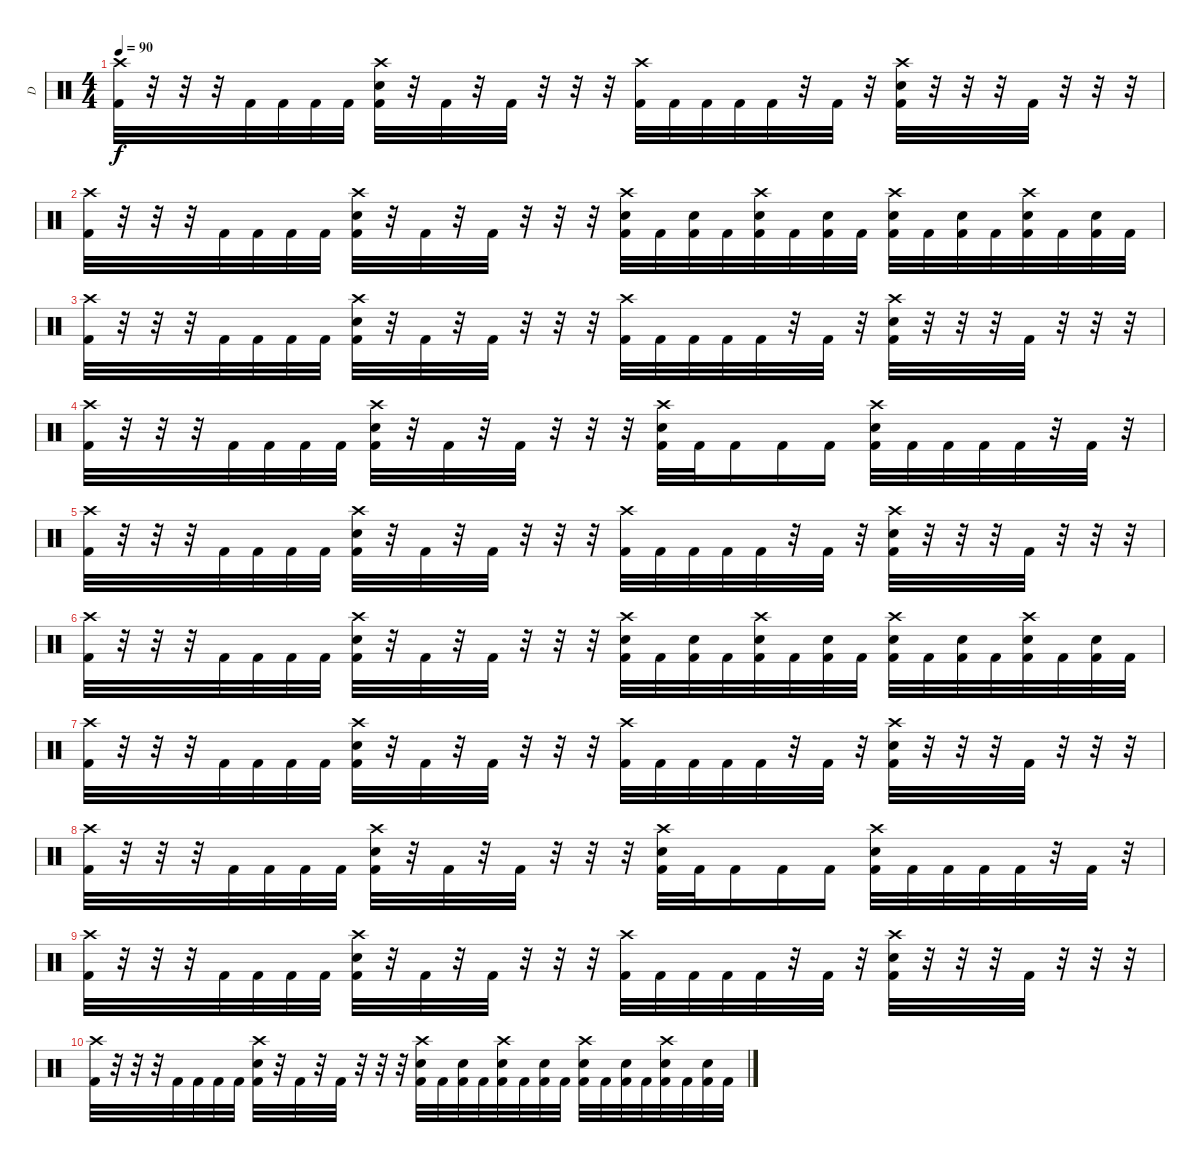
\track ("D" "D") {instrument percussion}
\staff {score}
\articulation defaults
\ts (4 4)
\tempo 90
\clef neutral
\ks c
("Crash high (hit)" "Kick (hit) 2").32{dy f} r.32 r.32 r.32 "Kick (hit) 2".32 "Kick (hit) 2".32 "Kick (hit) 2".32 "Kick (hit) 2".32 ("Crash high (hit)" "Electric Snare (hit)" "Kick (hit) 2").32 r.32 "Kick (hit) 2".32 r.32 "Kick (hit) 2".32 r.32 r.32 r.32 ("Crash high (hit)" "Kick (hit) 2").32 "Kick (hit) 2".32 "Kick (hit) 2".32 "Kick (hit) 2".32 "Kick (hit) 2".32 r.32 "Kick (hit) 2".32 r.32 ("Crash high (hit)" "Electric Snare (hit)" "Kick (hit) 2").32 r.32 r.32 r.32 "Kick (hit) 2".32 r.32 r.32 r.32 |
("Crash high (hit)" "Kick (hit) 2").32 r.32 r.32 r.32 "Kick (hit) 2".32 "Kick (hit) 2".32 "Kick (hit) 2".32 "Kick (hit) 2".32 ("Crash high (hit)" "Electric Snare (hit)" "Kick (hit) 2").32 r.32 "Kick (hit) 2".32 r.32 "Kick (hit) 2".32 r.32 r.32 r.32 ("Crash high (hit)" "Electric Snare (hit)" "Kick (hit) 2").32 "Kick (hit) 2".32 ("Electric Snare (hit)" "Kick (hit) 2").32 "Kick (hit) 2".32 ("Crash high (hit)" "Electric Snare (hit)" "Kick (hit) 2").32 "Kick (hit) 2".32 ("Electric Snare (hit)" "Kick (hit) 2").32 "Kick (hit) 2".32 ("Crash high (hit)" "Electric Snare (hit)" "Kick (hit) 2").32 "Kick (hit) 2".32 ("Electric Snare (hit)" "Kick (hit) 2").32 "Kick (hit) 2".32 ("Crash high (hit)" "Electric Snare (hit)" "Kick (hit) 2").32 "Kick (hit) 2".32 ("Electric Snare (hit)" "Kick (hit) 2").32 "Kick (hit) 2".32 |
("Crash high (hit)" "Kick (hit) 2").32 r.32 r.32 r.32 "Kick (hit) 2".32 "Kick (hit) 2".32 "Kick (hit) 2".32 "Kick (hit) 2".32 ("Crash high (hit)" "Electric Snare (hit)" "Kick (hit) 2").32 r.32 "Kick (hit) 2".32 r.32 "Kick (hit) 2".32 r.32 r.32 r.32 ("Crash high (hit)" "Kick (hit) 2").32 "Kick (hit) 2".32 "Kick (hit) 2".32 "Kick (hit) 2".32 "Kick (hit) 2".32 r.32 "Kick (hit) 2".32 r.32 ("Crash high (hit)" "Electric Snare (hit)" "Kick (hit) 2").32 r.32 r.32 r.32 "Kick (hit) 2".32 r.32 r.32 r.32 |
("Crash high (hit)" "Kick (hit) 2").32 r.32 r.32 r.32 "Kick (hit) 2".32 "Kick (hit) 2".32 "Kick (hit) 2".32 "Kick (hit) 2".32 ("Crash high (hit)" "Electric Snare (hit)" "Kick (hit) 2").32 r.32 "Kick (hit) 2".32 r.32 "Kick (hit) 2".32 r.32 r.32 r.32 ("Crash high (hit)" "Electric Snare (hit)" "Kick (hit) 2").32 "Kick (hit) 2".32 "Kick (hit) 2".16 "Kick (hit) 2".16 "Kick (hit) 2".16 ("Crash high (hit)" "Electric Snare (hit)" "Kick (hit) 2").32 "Kick (hit) 2".32 "Kick (hit) 2".32 "Kick (hit) 2".32 "Kick (hit) 2".32 r.32 "Kick (hit) 2".32 r.32 |
("Crash high (hit)" "Kick (hit) 2").32 r.32 r.32 r.32 "Kick (hit) 2".32 "Kick (hit) 2".32 "Kick (hit) 2".32 "Kick (hit) 2".32 ("Crash high (hit)" "Electric Snare (hit)" "Kick (hit) 2").32 r.32 "Kick (hit) 2".32 r.32 "Kick (hit) 2".32 r.32 r.32 r.32 ("Crash high (hit)" "Kick (hit) 2").32 "Kick (hit) 2".32 "Kick (hit) 2".32 "Kick (hit) 2".32 "Kick (hit) 2".32 r.32 "Kick (hit) 2".32 r.32 ("Crash high (hit)" "Electric Snare (hit)" "Kick (hit) 2").32 r.32 r.32 r.32 "Kick (hit) 2".32 r.32 r.32 r.32 |
("Crash high (hit)" "Kick (hit) 2").32 r.32 r.32 r.32 "Kick (hit) 2".32 "Kick (hit) 2".32 "Kick (hit) 2".32 "Kick (hit) 2".32 ("Crash high (hit)" "Electric Snare (hit)" "Kick (hit) 2").32 r.32 "Kick (hit) 2".32 r.32 "Kick (hit) 2".32 r.32 r.32 r.32 ("Crash high (hit)" "Electric Snare (hit)" "Kick (hit) 2").32 "Kick (hit) 2".32 ("Electric Snare (hit)" "Kick (hit) 2").32 "Kick (hit) 2".32 ("Crash high (hit)" "Electric Snare (hit)" "Kick (hit) 2").32 "Kick (hit) 2".32 ("Electric Snare (hit)" "Kick (hit) 2").32 "Kick (hit) 2".32 ("Crash high (hit)" "Electric Snare (hit)" "Kick (hit) 2").32 "Kick (hit) 2".32 ("Electric Snare (hit)" "Kick (hit) 2").32 "Kick (hit) 2".32 ("Crash high (hit)" "Electric Snare (hit)" "Kick (hit) 2").32 "Kick (hit) 2".32 ("Electric Snare (hit)" "Kick (hit) 2").32 "Kick (hit) 2".32 |
("Crash high (hit)" "Kick (hit) 2").32{volume 0} r.32 r.32 r.32 "Kick (hit) 2".32 "Kick (hit) 2".32 "Kick (hit) 2".32 "Kick (hit) 2".32 ("Crash high (hit)" "Electric Snare (hit)" "Kick (hit) 2").32 r.32 "Kick (hit) 2".32 r.32 "Kick (hit) 2".32 r.32 r.32 r.32 ("Crash high (hit)" "Kick (hit) 2").32 "Kick (hit) 2".32 "Kick (hit) 2".32 "Kick (hit) 2".32 "Kick (hit) 2".32 r.32 "Kick (hit) 2".32 r.32 ("Crash high (hit)" "Electric Snare (hit)" "Kick (hit) 2").32 r.32 r.32 r.32 "Kick (hit) 2".32 r.32 r.32 r.32 |
("Crash high (hit)" "Kick (hit) 2").32 r.32 r.32 r.32 "Kick (hit) 2".32 "Kick (hit) 2".32 "Kick (hit) 2".32 "Kick (hit) 2".32 ("Crash high (hit)" "Electric Snare (hit)" "Kick (hit) 2").32 r.32 "Kick (hit) 2".32 r.32 "Kick (hit) 2".32 r.32 r.32 r.32 ("Crash high (hit)" "Electric Snare (hit)" "Kick (hit) 2").32 "Kick (hit) 2".32 "Kick (hit) 2".16 "Kick (hit) 2".16 "Kick (hit) 2".16 ("Crash high (hit)" "Electric Snare (hit)" "Kick (hit) 2").32 "Kick (hit) 2".32 "Kick (hit) 2".32 "Kick (hit) 2".32 "Kick (hit) 2".32 r.32 "Kick (hit) 2".32 r.32 |
("Crash high (hit)" "Kick (hit) 2").32 r.32 r.32 r.32 "Kick (hit) 2".32 "Kick (hit) 2".32 "Kick (hit) 2".32 "Kick (hit) 2".32 ("Crash high (hit)" "Electric Snare (hit)" "Kick (hit) 2").32 r.32 "Kick (hit) 2".32 r.32 "Kick (hit) 2".32 r.32 r.32 r.32 ("Crash high (hit)" "Kick (hit) 2").32 "Kick (hit) 2".32 "Kick (hit) 2".32 "Kick (hit) 2".32 "Kick (hit) 2".32 r.32 "Kick (hit) 2".32 r.32 ("Crash high (hit)" "Electric Snare (hit)" "Kick (hit) 2").32 r.32 r.32 r.32 "Kick (hit) 2".32 r.32 r.32 r.32 |
("Crash high (hit)" "Kick (hit) 2").32 r.32 r.32 r.32 "Kick (hit) 2".32 "Kick (hit) 2".32 "Kick (hit) 2".32 "Kick (hit) 2".32 ("Crash high (hit)" "Electric Snare (hit)" "Kick (hit) 2").32 r.32 "Kick (hit) 2".32 r.32 "Kick (hit) 2".32 r.32 r.32 r.32 ("Crash high (hit)" "Electric Snare (hit)" "Kick (hit) 2").32 "Kick (hit) 2".32 ("Electric Snare (hit)" "Kick (hit) 2").32 "Kick (hit) 2".32 ("Crash high (hit)" "Electric Snare (hit)" "Kick (hit) 2").32 "Kick (hit) 2".32 ("Electric Snare (hit)" "Kick (hit) 2").32 "Kick (hit) 2".32 ("Crash high (hit)" "Electric Snare (hit)" "Kick (hit) 2").32 "Kick (hit) 2".32 ("Electric Snare (hit)" "Kick (hit) 2").32 "Kick (hit) 2".32 ("Crash high (hit)" "Electric Snare (hit)" "Kick (hit) 2").32 "Kick (hit) 2".32 ("Electric Snare (hit)" "Kick (hit) 2").32 "Kick (hit) 2".32
